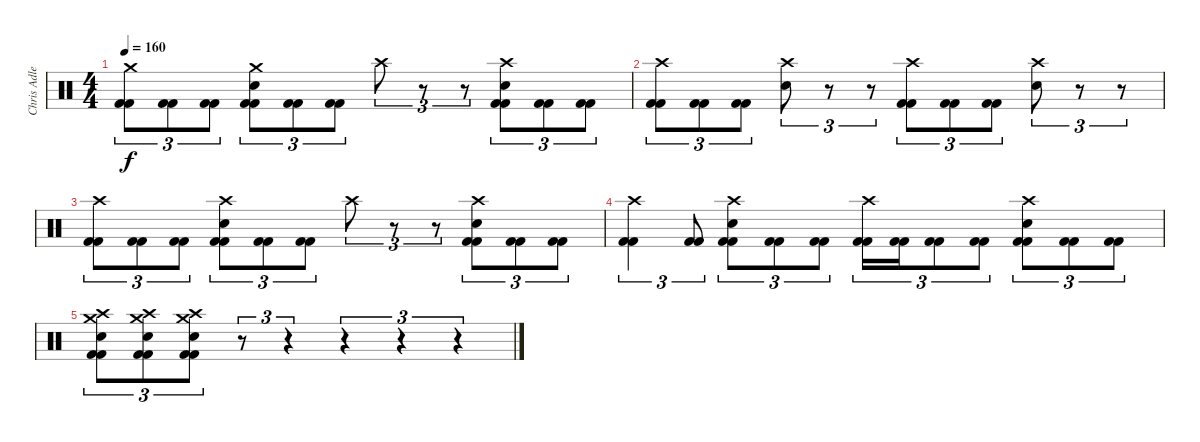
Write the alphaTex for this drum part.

\track ("Chris Adler" "Chris Adle") {instrument percussion}
\staff {score}
\articulation defaults
\ts (4 4)
\tempo 160
\clef neutral
\ks c
("Crash medium (hit)" "Kick (hit) 2" "Kick (hit) 2").8{tu (3 2) dy f} ("Kick (hit) 2" "Kick (hit) 2").8{tu (3 2)} ("Kick (hit) 2" "Kick (hit) 2").8{tu (3 2)} ("Crash medium (hit)" "Kick (hit) 2" "Snare (hit) 2" "Kick (hit) 2").8{tu (3 2)} ("Kick (hit) 2" "Kick (hit) 2").8{tu (3 2)} ("Kick (hit) 2" "Kick (hit) 2").8{tu (3 2)} "Crash high (hit)".8{tu (3 2)} r.8{tu (3 2)} r.8{tu (3 2)} ("Crash high (hit)" "Kick (hit) 2" "Snare (hit) 2" "Kick (hit) 2").8{tu (3 2)} ("Kick (hit) 2" "Kick (hit) 2").8{tu (3 2)} ("Kick (hit) 2" "Kick (hit) 2").8{tu (3 2)} |
("Crash high (hit)" "Kick (hit) 2" "Kick (hit) 2").8{tu (3 2)} ("Kick (hit) 2" "Kick (hit) 2").8{tu (3 2)} ("Kick (hit) 2" "Kick (hit) 2").8{tu (3 2)} ("Crash high (hit)" "Snare (hit) 2").8{tu (3 2)} r.8{tu (3 2)} r.8{tu (3 2)} ("Crash high (hit)" "Kick (hit) 2" "Kick (hit) 2").8{tu (3 2)} ("Kick (hit) 2" "Kick (hit) 2").8{tu (3 2)} ("Kick (hit) 2" "Kick (hit) 2").8{tu (3 2)} ("Crash high (hit)" "Snare (hit) 2").8{tu (3 2)} r.8{tu (3 2)} r.8{tu (3 2)} |
("Crash high (hit)" "Kick (hit) 2" "Kick (hit) 2").8{tu (3 2)} ("Kick (hit) 2" "Kick (hit) 2").8{tu (3 2)} ("Kick (hit) 2" "Kick (hit) 2").8{tu (3 2)} ("Crash high (hit)" "Kick (hit) 2" "Snare (hit) 2" "Kick (hit) 2").8{tu (3 2)} ("Kick (hit) 2" "Kick (hit) 2").8{tu (3 2)} ("Kick (hit) 2" "Kick (hit) 2").8{tu (3 2)} "Crash high (hit)".8{tu (3 2)} r.8{tu (3 2)} r.8{tu (3 2)} ("Crash high (hit)" "Kick (hit) 2" "Snare (hit) 2" "Kick (hit) 2").8{tu (3 2)} ("Kick (hit) 2" "Kick (hit) 2").8{tu (3 2)} ("Kick (hit) 2" "Kick (hit) 2").8{tu (3 2)} |
("Crash high (hit)" "Kick (hit) 2" "Kick (hit) 2").4{tu (3 2)} ("Kick (hit) 2" "Kick (hit) 2").8{tu (3 2)} ("Crash high (hit)" "Kick (hit) 2" "Snare (hit) 2" "Kick (hit) 2").8{tu (3 2)} ("Kick (hit) 2" "Kick (hit) 2").8{tu (3 2)} ("Kick (hit) 2" "Kick (hit) 2").8{tu (3 2)} ("Crash high (hit)" "Kick (hit) 2" "Kick (hit) 2").16{tu (3 2)} ("Kick (hit) 2" "Kick (hit) 2").16{tu (3 2)} ("Kick (hit) 2" "Kick (hit) 2").8{tu (3 2)} ("Kick (hit) 2" "Kick (hit) 2").8{tu (3 2)} ("Crash high (hit)" "Kick (hit) 2" "Snare (hit) 2" "Kick (hit) 2").8{tu (3 2)} ("Kick (hit) 2" "Kick (hit) 2").8{tu (3 2)} ("Kick (hit) 2" "Kick (hit) 2").8{tu (3 2)} |
("Crash medium (hit)" "Crash high (hit)" "Snare (hit) 2" "Kick (hit) 2" "Kick (hit) 2").8{tu (3 2)} ("Crash medium (hit)" "Crash high (hit)" "Snare (hit) 2" "Kick (hit) 2" "Kick (hit) 2").8{tu (3 2)} ("Crash medium (hit)" "Crash high (hit)" "Snare (hit) 2" "Kick (hit) 2" "Kick (hit) 2").8{tu (3 2)} r.8{tu (3 2)} r.4{tu (3 2)} r.4{tu (3 2)} r.4{tu (3 2)} r.4{tu (3 2)}
